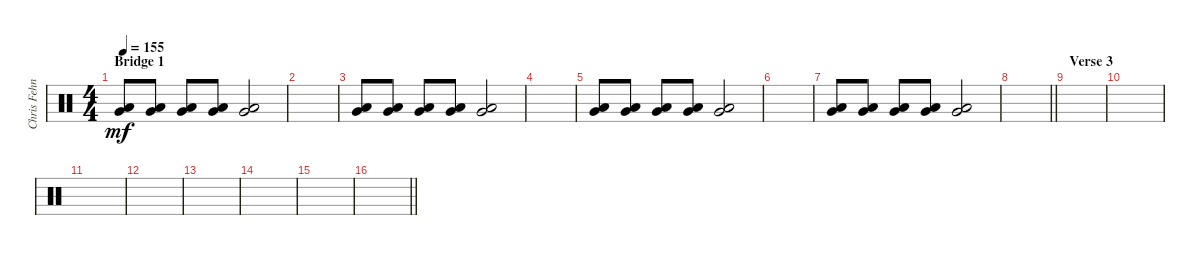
\track ("Chris Fehn" "Chris Fehn") {instrument percussion}
\staff {score}
\articulation defaults
\ts (4 4)
\section ("" "Bridge 1")
\tempo 155
\clef neutral
\ks c
("Very Low Tom (hit)" "Low Floor Tom (hit)").8{dy mf} ("Very Low Tom (hit)" "Low Floor Tom (hit)").8 ("Very Low Tom (hit)" "Low Floor Tom (hit)").8 ("Very Low Tom (hit)" "Low Floor Tom (hit)").8 ("Very Low Tom (hit)" "Low Floor Tom (hit)").2 |
|
("Very Low Tom (hit)" "Low Floor Tom (hit)").8 ("Very Low Tom (hit)" "Low Floor Tom (hit)").8 ("Very Low Tom (hit)" "Low Floor Tom (hit)").8 ("Very Low Tom (hit)" "Low Floor Tom (hit)").8 ("Very Low Tom (hit)" "Low Floor Tom (hit)").2 |
|
("Very Low Tom (hit)" "Low Floor Tom (hit)").8 ("Very Low Tom (hit)" "Low Floor Tom (hit)").8 ("Very Low Tom (hit)" "Low Floor Tom (hit)").8 ("Very Low Tom (hit)" "Low Floor Tom (hit)").8 ("Very Low Tom (hit)" "Low Floor Tom (hit)").2 |
|
("Very Low Tom (hit)" "Low Floor Tom (hit)").8 ("Very Low Tom (hit)" "Low Floor Tom (hit)").8 ("Very Low Tom (hit)" "Low Floor Tom (hit)").8 ("Very Low Tom (hit)" "Low Floor Tom (hit)").8 ("Very Low Tom (hit)" "Low Floor Tom (hit)").2 |
\barLineRight lightlight
|
\section ("" "Verse 3")
|
|
|
|
|
|
|
\barLineRight lightlight
